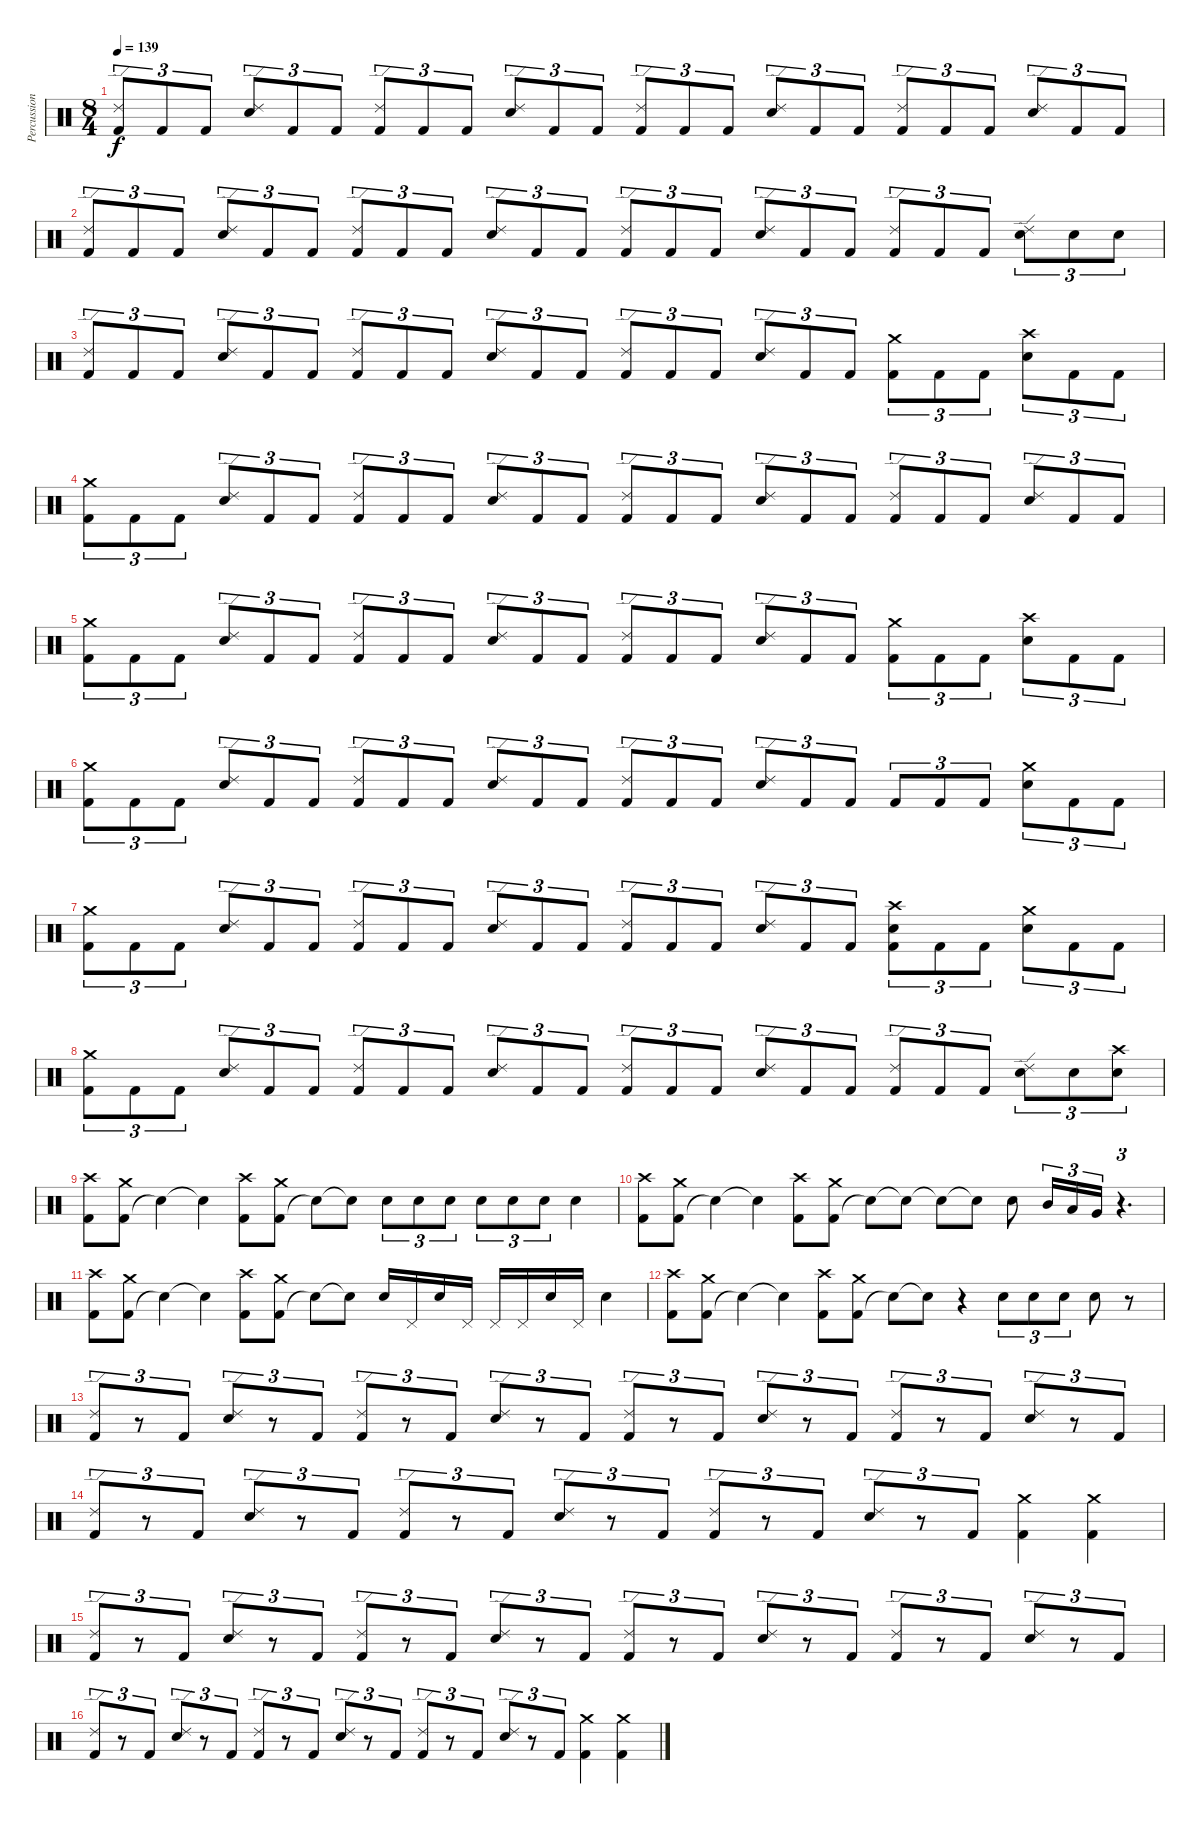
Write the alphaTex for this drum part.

\track ("Percussion" "Percussion") {instrument percussion}
\staff {score}
\articulation defaults
\ts (8 4)
\tempo 139
\clef neutral
\ks c
("Kick (hit) 2" "Ride (edge) 2").8{tu (3 2) dy f} "Kick (hit) 2".8{tu (3 2)} "Kick (hit) 2".8{tu (3 2)} ("Snare (hit) 2" "Ride (edge) 2").8{tu (3 2)} "Kick (hit) 2".8{tu (3 2)} "Kick (hit) 2".8{tu (3 2)} ("Kick (hit) 2" "Ride (edge) 2").8{tu (3 2)} "Kick (hit) 2".8{tu (3 2)} "Kick (hit) 2".8{tu (3 2)} ("Snare (hit) 2" "Ride (edge) 2").8{tu (3 2)} "Kick (hit) 2".8{tu (3 2)} "Kick (hit) 2".8{tu (3 2)} ("Kick (hit) 2" "Ride (edge) 2").8{tu (3 2)} "Kick (hit) 2".8{tu (3 2)} "Kick (hit) 2".8{tu (3 2)} ("Snare (hit) 2" "Ride (edge) 2").8{tu (3 2)} "Kick (hit) 2".8{tu (3 2)} "Kick (hit) 2".8{tu (3 2)} ("Kick (hit) 2" "Ride (edge) 2").8{tu (3 2)} "Kick (hit) 2".8{tu (3 2)} "Kick (hit) 2".8{tu (3 2)} ("Snare (hit) 2" "Ride (edge) 2").8{tu (3 2)} "Kick (hit) 2".8{tu (3 2)} "Kick (hit) 2".8{tu (3 2)} |
("Kick (hit) 2" "Ride (edge) 2").8{tu (3 2)} "Kick (hit) 2".8{tu (3 2)} "Kick (hit) 2".8{tu (3 2)} ("Snare (hit) 2" "Ride (edge) 2").8{tu (3 2)} "Kick (hit) 2".8{tu (3 2)} "Kick (hit) 2".8{tu (3 2)} ("Kick (hit) 2" "Ride (edge) 2").8{tu (3 2)} "Kick (hit) 2".8{tu (3 2)} "Kick (hit) 2".8{tu (3 2)} ("Snare (hit) 2" "Ride (edge) 2").8{tu (3 2)} "Kick (hit) 2".8{tu (3 2)} "Kick (hit) 2".8{tu (3 2)} ("Kick (hit) 2" "Ride (edge) 2").8{tu (3 2)} "Kick (hit) 2".8{tu (3 2)} "Kick (hit) 2".8{tu (3 2)} ("Snare (hit) 2" "Ride (edge) 2").8{tu (3 2)} "Kick (hit) 2".8{tu (3 2)} "Kick (hit) 2".8{tu (3 2)} ("Kick (hit) 2" "Ride (edge) 2").8{tu (3 2)} "Kick (hit) 2".8{tu (3 2)} "Kick (hit) 2".8{tu (3 2)} ("Snare (hit) 2" "Ride (edge) 2").8{tu (3 2)} "Snare (hit) 2".8{tu (3 2)} "Snare (hit) 2".8{tu (3 2)} |
("Kick (hit) 2" "Ride (edge) 2").8{tu (3 2)} "Kick (hit) 2".8{tu (3 2)} "Kick (hit) 2".8{tu (3 2)} ("Snare (hit) 2" "Ride (edge) 2").8{tu (3 2)} "Kick (hit) 2".8{tu (3 2)} "Kick (hit) 2".8{tu (3 2)} ("Kick (hit) 2" "Ride (edge) 2").8{tu (3 2)} "Kick (hit) 2".8{tu (3 2)} "Kick (hit) 2".8{tu (3 2)} ("Snare (hit) 2" "Ride (edge) 2").8{tu (3 2)} "Kick (hit) 2".8{tu (3 2)} "Kick (hit) 2".8{tu (3 2)} ("Kick (hit) 2" "Ride (edge) 2").8{tu (3 2)} "Kick (hit) 2".8{tu (3 2)} "Kick (hit) 2".8{tu (3 2)} ("Snare (hit) 2" "Ride (edge) 2").8{tu (3 2)} "Kick (hit) 2".8{tu (3 2)} "Kick (hit) 2".8{tu (3 2)} ("Kick (hit) 2" "Crash medium (hit)").8{tu (3 2)} "Kick (hit) 2".8{tu (3 2)} "Kick (hit) 2".8{tu (3 2)} ("Snare (hit) 2" "Crash high (hit)").8{tu (3 2)} "Kick (hit) 2".8{tu (3 2)} "Kick (hit) 2".8{tu (3 2)} |
("Kick (hit) 2" "Crash medium (hit)").8{tu (3 2)} "Kick (hit) 2".8{tu (3 2)} "Kick (hit) 2".8{tu (3 2)} ("Snare (hit) 2" "Ride (edge) 2").8{tu (3 2)} "Kick (hit) 2".8{tu (3 2)} "Kick (hit) 2".8{tu (3 2)} ("Kick (hit) 2" "Ride (edge) 2").8{tu (3 2)} "Kick (hit) 2".8{tu (3 2)} "Kick (hit) 2".8{tu (3 2)} ("Snare (hit) 2" "Ride (edge) 2").8{tu (3 2)} "Kick (hit) 2".8{tu (3 2)} "Kick (hit) 2".8{tu (3 2)} ("Kick (hit) 2" "Ride (edge) 2").8{tu (3 2)} "Kick (hit) 2".8{tu (3 2)} "Kick (hit) 2".8{tu (3 2)} ("Snare (hit) 2" "Ride (edge) 2").8{tu (3 2)} "Kick (hit) 2".8{tu (3 2)} "Kick (hit) 2".8{tu (3 2)} ("Kick (hit) 2" "Ride (edge) 2").8{tu (3 2)} "Kick (hit) 2".8{tu (3 2)} "Kick (hit) 2".8{tu (3 2)} ("Snare (hit) 2" "Ride (edge) 2").8{tu (3 2)} "Kick (hit) 2".8{tu (3 2)} "Kick (hit) 2".8{tu (3 2)} |
("Kick (hit) 2" "Crash medium (hit)").8{tu (3 2)} "Kick (hit) 2".8{tu (3 2)} "Kick (hit) 2".8{tu (3 2)} ("Snare (hit) 2" "Ride (edge) 2").8{tu (3 2)} "Kick (hit) 2".8{tu (3 2)} "Kick (hit) 2".8{tu (3 2)} ("Kick (hit) 2" "Ride (edge) 2").8{tu (3 2)} "Kick (hit) 2".8{tu (3 2)} "Kick (hit) 2".8{tu (3 2)} ("Snare (hit) 2" "Ride (edge) 2").8{tu (3 2)} "Kick (hit) 2".8{tu (3 2)} "Kick (hit) 2".8{tu (3 2)} ("Kick (hit) 2" "Ride (edge) 2").8{tu (3 2)} "Kick (hit) 2".8{tu (3 2)} "Kick (hit) 2".8{tu (3 2)} ("Snare (hit) 2" "Ride (edge) 2").8{tu (3 2)} "Kick (hit) 2".8{tu (3 2)} "Kick (hit) 2".8{tu (3 2)} ("Kick (hit) 2" "Crash medium (hit)").8{tu (3 2)} "Kick (hit) 2".8{tu (3 2)} "Kick (hit) 2".8{tu (3 2)} ("Snare (hit) 2" "Crash high (hit)").8{tu (3 2)} "Kick (hit) 2".8{tu (3 2)} "Kick (hit) 2".8{tu (3 2)} |
("Kick (hit) 2" "Crash medium (hit)").8{tu (3 2)} "Kick (hit) 2".8{tu (3 2)} "Kick (hit) 2".8{tu (3 2)} ("Snare (hit) 2" "Ride (edge) 2").8{tu (3 2)} "Kick (hit) 2".8{tu (3 2)} "Kick (hit) 2".8{tu (3 2)} ("Kick (hit) 2" "Ride (edge) 2").8{tu (3 2)} "Kick (hit) 2".8{tu (3 2)} "Kick (hit) 2".8{tu (3 2)} ("Snare (hit) 2" "Ride (edge) 2").8{tu (3 2)} "Kick (hit) 2".8{tu (3 2)} "Kick (hit) 2".8{tu (3 2)} ("Kick (hit) 2" "Ride (edge) 2").8{tu (3 2)} "Kick (hit) 2".8{tu (3 2)} "Kick (hit) 2".8{tu (3 2)} ("Snare (hit) 2" "Ride (edge) 2").8{tu (3 2)} "Kick (hit) 2".8{tu (3 2)} "Kick (hit) 2".8{tu (3 2)} "Kick (hit) 2".8{tu (3 2)} "Kick (hit) 2".8{tu (3 2)} "Kick (hit) 2".8{tu (3 2)} ("Snare (hit) 2" "Crash medium (hit)").8{tu (3 2)} "Kick (hit) 2".8{tu (3 2)} "Kick (hit) 2".8{tu (3 2)} |
("Kick (hit) 2" "Crash medium (hit)").8{tu (3 2)} "Kick (hit) 2".8{tu (3 2)} "Kick (hit) 2".8{tu (3 2)} ("Snare (hit) 2" "Ride (edge) 2").8{tu (3 2)} "Kick (hit) 2".8{tu (3 2)} "Kick (hit) 2".8{tu (3 2)} ("Kick (hit) 2" "Ride (edge) 2").8{tu (3 2)} "Kick (hit) 2".8{tu (3 2)} "Kick (hit) 2".8{tu (3 2)} ("Snare (hit) 2" "Ride (edge) 2").8{tu (3 2)} "Kick (hit) 2".8{tu (3 2)} "Kick (hit) 2".8{tu (3 2)} ("Kick (hit) 2" "Ride (edge) 2").8{tu (3 2)} "Kick (hit) 2".8{tu (3 2)} "Kick (hit) 2".8{tu (3 2)} ("Snare (hit) 2" "Ride (edge) 2").8{tu (3 2)} "Kick (hit) 2".8{tu (3 2)} "Kick (hit) 2".8{tu (3 2)} ("Kick (hit) 2" "Snare (hit) 2" "Crash high (hit)").8{tu (3 2)} "Kick (hit) 2".8{tu (3 2)} "Kick (hit) 2".8{tu (3 2)} ("Snare (hit) 2" "Crash medium (hit)").8{tu (3 2)} "Kick (hit) 2".8{tu (3 2)} "Kick (hit) 2".8{tu (3 2)} |
("Kick (hit) 2" "Crash medium (hit)").8{tu (3 2)} "Kick (hit) 2".8{tu (3 2)} "Kick (hit) 2".8{tu (3 2)} ("Snare (hit) 2" "Ride (edge) 2").8{tu (3 2)} "Kick (hit) 2".8{tu (3 2)} "Kick (hit) 2".8{tu (3 2)} ("Kick (hit) 2" "Ride (edge) 2").8{tu (3 2)} "Kick (hit) 2".8{tu (3 2)} "Kick (hit) 2".8{tu (3 2)} ("Snare (hit) 2" "Ride (edge) 2").8{tu (3 2)} "Kick (hit) 2".8{tu (3 2)} "Kick (hit) 2".8{tu (3 2)} ("Kick (hit) 2" "Ride (edge) 2").8{tu (3 2)} "Kick (hit) 2".8{tu (3 2)} "Kick (hit) 2".8{tu (3 2)} ("Snare (hit) 2" "Ride (edge) 2").8{tu (3 2)} "Kick (hit) 2".8{tu (3 2)} "Kick (hit) 2".8{tu (3 2)} ("Kick (hit) 2" "Ride (edge) 2").8{tu (3 2)} "Kick (hit) 2".8{tu (3 2)} "Kick (hit) 2".8{tu (3 2)} ("Snare (hit) 2" "Ride (edge) 2").8{tu (3 2)} "Snare (hit) 2".8{tu (3 2)} ("Crash high (hit)" "Snare (hit) 2").8{tu (3 2)} |
("Kick (hit) 2" "Crash high (hit)").8 ("Kick (hit) 2" "Crash medium (hit)").8 "Snare (hit)"{t}.4 "Snare (hit)"{t}.4 ("Kick (hit) 2" "Crash high (hit)").8 ("Kick (hit) 2" "Crash medium (hit)").8 "Snare (hit)"{t}.8 "Snare (hit) 2"{t}.8 "Snare (hit) 2".8{tu (3 2)} "Snare (hit) 2".8{tu (3 2)} "Snare (hit) 2".8{tu (3 2)} "Snare (hit) 2".8{tu (3 2)} "Snare (hit) 2".8{tu (3 2)} "Snare (hit) 2".8{tu (3 2)} "Snare (hit) 2".4 |
("Kick (hit) 2" "Crash high (hit)").8 ("Kick (hit) 2" "Crash medium (hit)").8 "Snare (hit)"{t}.4 "Snare (hit)"{t}.4 ("Kick (hit) 2" "Crash high (hit)").8 ("Kick (hit) 2" "Crash medium (hit)").8 "Snare (hit)"{t}.8 "Snare (hit) 2"{t}.8 "Snare (hit) 2"{t}.8 "Snare (hit)"{t}.8 "Snare (hit) 2".8 "Mid Tom (hit)".16{tu (3 2)} "Low Tom (hit)".16{tu (3 2)} "Very Low Tom (hit)".16{tu (3 2)} r.4{d tu (3 2)} |
("Kick (hit) 2" "Crash high (hit)").8 ("Kick (hit) 2" "Crash medium (hit)").8 "Snare (hit)"{t}.4 "Snare (hit)"{t}.4 ("Kick (hit) 2" "Crash high (hit)").8 ("Kick (hit) 2" "Crash medium (hit)").8 "Snare (hit)"{t}.8 "Snare (hit) 2"{t}.8 "Snare (hit) 2".16 "Pedal Hi-Hat (hit)".16 "Snare (hit) 2".16 "Pedal Hi-Hat (hit)".16 "Pedal Hi-Hat (hit)".16 "Pedal Hi-Hat (hit)".16 "Snare (hit) 2".16 "Pedal Hi-Hat (hit)".16 "Snare (hit) 2".4 |
("Kick (hit) 2" "Crash high (hit)").8 ("Kick (hit) 2" "Crash medium (hit)").8 "Snare (hit)"{t}.4 "Snare (hit)"{t}.4 ("Kick (hit) 2" "Crash high (hit)").8 ("Kick (hit) 2" "Crash medium (hit)").8 "Snare (hit)"{t}.8 "Snare (hit) 2"{t}.8 r.4 "Snare (hit) 2".8{tu (3 2)} "Snare (hit) 2".8{tu (3 2)} "Snare (hit) 2".8{tu (3 2)} "Snare (hit) 2".8 r.8 |
("Kick (hit) 2" "Ride (edge) 2").8{tu (3 2)} r.8{tu (3 2)} "Kick (hit) 2".8{tu (3 2)} ("Snare (hit) 2" "Ride (edge) 2").8{tu (3 2)} r.8{tu (3 2)} "Kick (hit) 2".8{tu (3 2)} ("Kick (hit) 2" "Ride (edge) 2").8{tu (3 2)} r.8{tu (3 2)} "Kick (hit) 2".8{tu (3 2)} ("Snare (hit) 2" "Ride (edge) 2").8{tu (3 2)} r.8{tu (3 2)} "Kick (hit) 2".8{tu (3 2)} ("Kick (hit) 2" "Ride (edge) 2").8{tu (3 2)} r.8{tu (3 2)} "Kick (hit) 2".8{tu (3 2)} ("Snare (hit) 2" "Ride (edge) 2").8{tu (3 2)} r.8{tu (3 2)} "Kick (hit) 2".8{tu (3 2)} ("Kick (hit) 2" "Ride (edge) 2").8{tu (3 2)} r.8{tu (3 2)} "Kick (hit) 2".8{tu (3 2)} ("Snare (hit) 2" "Ride (edge) 2").8{tu (3 2)} r.8{tu (3 2)} "Kick (hit) 2".8{tu (3 2)} |
("Kick (hit) 2" "Ride (edge) 2").8{tu (3 2)} r.8{tu (3 2)} "Kick (hit) 2".8{tu (3 2)} ("Snare (hit) 2" "Ride (edge) 2").8{tu (3 2)} r.8{tu (3 2)} "Kick (hit) 2".8{tu (3 2)} ("Kick (hit) 2" "Ride (edge) 2").8{tu (3 2)} r.8{tu (3 2)} "Kick (hit) 2".8{tu (3 2)} ("Snare (hit) 2" "Ride (edge) 2").8{tu (3 2)} r.8{tu (3 2)} "Kick (hit) 2".8{tu (3 2)} ("Kick (hit) 2" "Ride (edge) 2").8{tu (3 2)} r.8{tu (3 2)} "Kick (hit) 2".8{tu (3 2)} ("Snare (hit) 2" "Ride (edge) 2").8{tu (3 2)} r.8{tu (3 2)} "Kick (hit) 2".8{tu (3 2)} ("Kick (hit) 2" "Crash medium (hit)").4 ("Kick (hit) 2" "Crash medium (hit)").4 |
("Kick (hit) 2" "Ride (edge) 2").8{tu (3 2)} r.8{tu (3 2)} "Kick (hit) 2".8{tu (3 2)} ("Snare (hit) 2" "Ride (edge) 2").8{tu (3 2)} r.8{tu (3 2)} "Kick (hit) 2".8{tu (3 2)} ("Kick (hit) 2" "Ride (edge) 2").8{tu (3 2)} r.8{tu (3 2)} "Kick (hit) 2".8{tu (3 2)} ("Snare (hit) 2" "Ride (edge) 2").8{tu (3 2)} r.8{tu (3 2)} "Kick (hit) 2".8{tu (3 2)} ("Kick (hit) 2" "Ride (edge) 2").8{tu (3 2)} r.8{tu (3 2)} "Kick (hit) 2".8{tu (3 2)} ("Snare (hit) 2" "Ride (edge) 2").8{tu (3 2)} r.8{tu (3 2)} "Kick (hit) 2".8{tu (3 2)} ("Kick (hit) 2" "Ride (edge) 2").8{tu (3 2)} r.8{tu (3 2)} "Kick (hit) 2".8{tu (3 2)} ("Snare (hit) 2" "Ride (edge) 2").8{tu (3 2)} r.8{tu (3 2)} "Kick (hit) 2".8{tu (3 2)} |
("Kick (hit) 2" "Ride (edge) 2").8{tu (3 2)} r.8{tu (3 2)} "Kick (hit) 2".8{tu (3 2)} ("Snare (hit) 2" "Ride (edge) 2").8{tu (3 2)} r.8{tu (3 2)} "Kick (hit) 2".8{tu (3 2)} ("Kick (hit) 2" "Ride (edge) 2").8{tu (3 2)} r.8{tu (3 2)} "Kick (hit) 2".8{tu (3 2)} ("Snare (hit) 2" "Ride (edge) 2").8{tu (3 2)} r.8{tu (3 2)} "Kick (hit) 2".8{tu (3 2)} ("Kick (hit) 2" "Ride (edge) 2").8{tu (3 2)} r.8{tu (3 2)} "Kick (hit) 2".8{tu (3 2)} ("Snare (hit) 2" "Ride (edge) 2").8{tu (3 2)} r.8{tu (3 2)} "Kick (hit) 2".8{tu (3 2)} ("Kick (hit) 2" "Crash medium (hit)").4 ("Kick (hit) 2" "Crash medium (hit)").4
